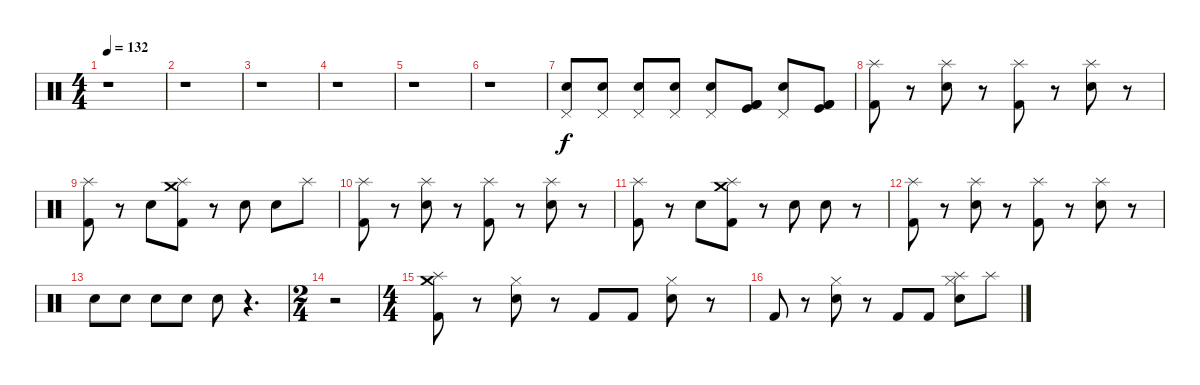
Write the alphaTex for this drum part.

\track "" {instrument percussion}
\staff {score}
\articulation defaults
\ts (4 4)
\tempo 132
\clef neutral
\ks c
r.1{dy f} |
r.1 |
r.1 |
r.1 |
r.1 |
r.1 |
("Pedal Hi-Hat (hit)" "Electric Snare (hit)").8 ("Pedal Hi-Hat (hit)" "Electric Snare (hit)").8 ("Pedal Hi-Hat (hit)" "Electric Snare (hit)").8 ("Pedal Hi-Hat (hit)" "Electric Snare (hit)").8 ("Pedal Hi-Hat (hit)" "Electric Snare (hit)").8 ("Kick (hit) 2" "Kick (hit)" "Kick (hit) 2").8 ("Pedal Hi-Hat (hit)" "Electric Snare (hit)").8 ("Kick (hit) 2" "Kick (hit)" "Kick (hit) 2").8 |
("Splash (hit)" "Kick (hit) 2").8 r.8 ("Splash (hit)" "Electric Snare (hit)").8 r.8 ("Splash (hit)" "Kick (hit) 2").8 r.8 ("Splash (hit)" "Electric Snare (hit)").8 r.8 |
("Splash (hit)" "Kick (hit) 2").8 r.8 "Electric Snare (hit)".8 ("Crash medium (hit)" "Splash (hit)" "Kick (hit) 2").8 r.8 "Electric Snare (hit)".8 "Electric Snare (hit)".8 "Splash (hit)".8 |
("Splash (hit)" "Kick (hit) 2").8 r.8 ("Splash (hit)" "Electric Snare (hit)").8 r.8 ("Splash (hit)" "Kick (hit) 2").8 r.8 ("Splash (hit)" "Electric Snare (hit)").8 r.8 |
("Splash (hit)" "Kick (hit) 2").8 r.8 "Electric Snare (hit)".8 ("Crash medium (hit)" "Splash (hit)" "Kick (hit) 2").8 r.8 "Electric Snare (hit)".8 "Electric Snare (hit)".8 r.8 |
("Splash (hit)" "Kick (hit) 2").8 r.8 ("Splash (hit)" "Electric Snare (hit)").8 r.8 ("Splash (hit)" "Kick (hit) 2").8 r.8 ("Splash (hit)" "Electric Snare (hit)").8 r.8 |
"Electric Snare (hit)".8 "Electric Snare (hit)".8 "Electric Snare (hit)".8 "Electric Snare (hit)".8 "Electric Snare (hit)".8 r.4{d} |
\ts (2 4)
r.2 |
\ts (4 4)
("Splash (hit)" "Crash medium (hit)" "Kick (hit) 2").8 r.8 ("Hi-Hat (closed)" "Electric Snare (hit)").8 r.8 "Kick (hit) 2".8 "Kick (hit) 2".8 ("Hi-Hat (closed)" "Electric Snare (hit)").8 r.8 |
"Kick (hit) 2".8 r.8 ("Hi-Hat (closed)" "Electric Snare (hit)").8 r.8 "Kick (hit) 2".8 "Kick (hit) 2".8 ("Hi-Hat (closed)" "Splash (hit)" "Electric Snare (hit)").8 "Splash (hit)".8
